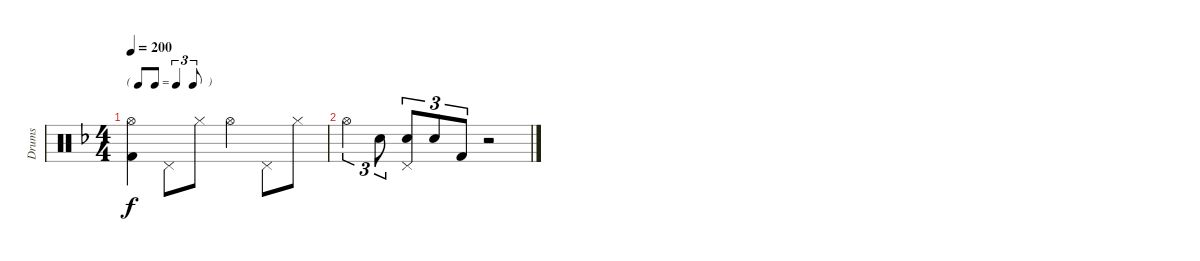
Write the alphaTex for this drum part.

\track ("Drums" "Drums") {instrument percussion}
\staff {score}
\articulation defaults
\ts (4 4)
\tf triplet8th
\tempo 200
\clef neutral
\ks f
("Hi-Hat (open)" "Kick (hit) 2").4{dy f} "Pedal Hi-Hat (hit)".8 "Hi-Hat (closed)".8 "Hi-Hat (open)".4 "Pedal Hi-Hat (hit)".8 "Hi-Hat (closed)".8 |
"Hi-Hat (open)".4{tu (3 2)} "Snare (hit) 2".8{tu (3 2)} ("Pedal Hi-Hat (hit)" "Snare (hit) 2").8{tu (3 2)} "Snare (hit) 2".8{tu (3 2)} "Kick (hit) 2".8{tu (3 2)} r.2
